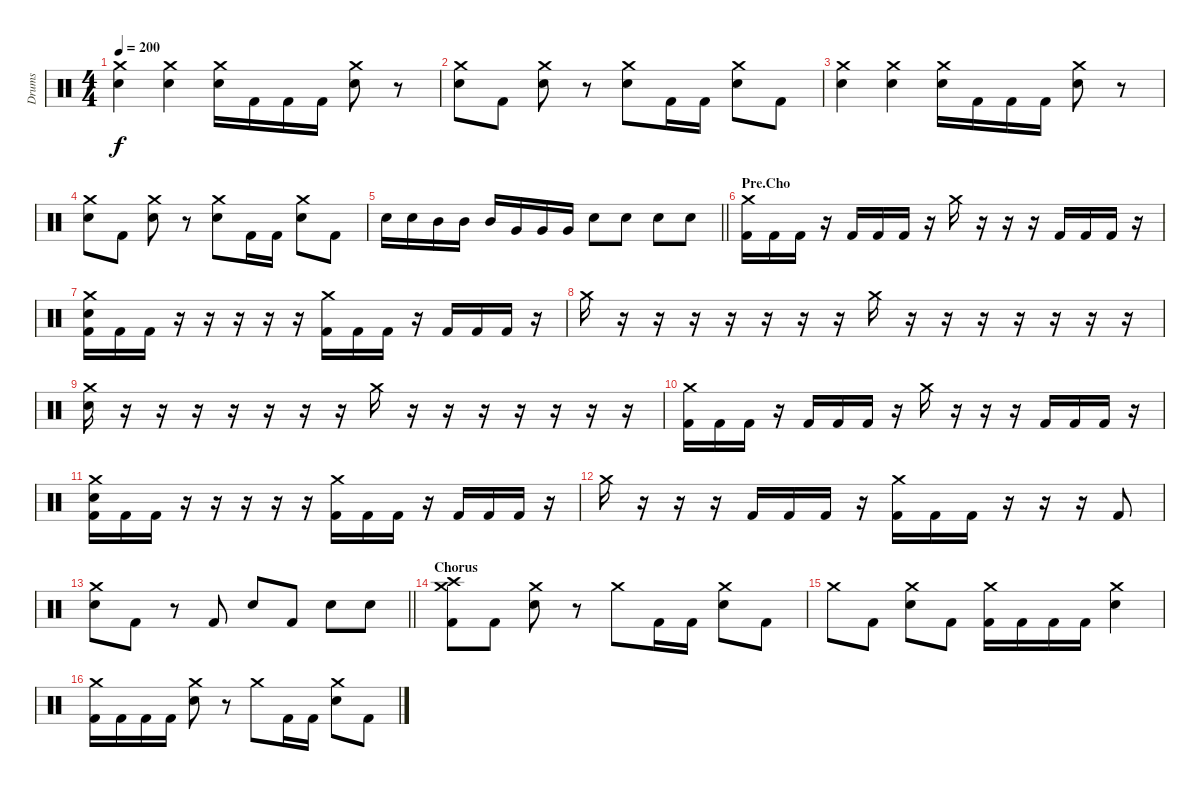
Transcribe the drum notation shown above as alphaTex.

\track ("Drums" "Drums") {instrument percussion}
\staff {score}
\articulation defaults
\ts (4 4)
\tempo 200
\clef neutral
\ks c
("Crash medium (hit)" "Electric Snare (hit)").4{dy f} ("Crash medium (hit)" "Electric Snare (hit)").4 ("Crash medium (hit)" "Electric Snare (hit)").16 "Kick (hit) 2".16 "Kick (hit) 2".16 "Kick (hit) 2".16 ("Crash medium (hit)" "Electric Snare (hit)").8 r.8 |
("Crash medium (hit)" "Electric Snare (hit)").8 "Kick (hit) 2".8 ("Crash medium (hit)" "Electric Snare (hit)").8 r.8 ("Crash medium (hit)" "Electric Snare (hit)").8 "Kick (hit) 2".16 "Kick (hit) 2".16 ("Crash medium (hit)" "Electric Snare (hit)").8 "Kick (hit) 2".8 |
("Crash medium (hit)" "Electric Snare (hit)").4 ("Crash medium (hit)" "Electric Snare (hit)").4 ("Crash medium (hit)" "Electric Snare (hit)").16 "Kick (hit) 2".16 "Kick (hit) 2".16 "Kick (hit) 2".16 ("Crash medium (hit)" "Electric Snare (hit)").8 r.8 |
("Crash medium (hit)" "Electric Snare (hit)").8 "Kick (hit) 2".8 ("Crash medium (hit)" "Electric Snare (hit)").8 r.8 ("Crash medium (hit)" "Electric Snare (hit)").8 "Kick (hit) 2".16 "Kick (hit) 2".16 ("Crash medium (hit)" "Electric Snare (hit)").8 "Kick (hit) 2".8 |
\barLineRight lightlight "Electric Snare (hit)".16 "Electric Snare (hit)".16 "Mid Tom (hit)".16 "Mid Tom (hit)".16 "Mid Tom (hit)".16 "Very Low Tom (hit)".16 "Very Low Tom (hit)".16 "Very Low Tom (hit)".16 "Electric Snare (hit)".8 "Electric Snare (hit)".8 "Electric Snare (hit)".8 "Electric Snare (hit)".8
|
\section ("" "Pre.Cho")
("Crash medium (hit)" "Kick (hit) 2").16 "Kick (hit) 2".16 "Kick (hit) 2".16 r.16 "Kick (hit) 2".16 "Kick (hit) 2".16 "Kick (hit) 2".16 r.16 "Crash medium (hit)".16 r.16 r.16 r.16 "Kick (hit) 2".16 "Kick (hit) 2".16 "Kick (hit) 2".16 r.16 |
("Crash medium (hit)" "Electric Snare (hit)" "Kick (hit) 2").16 "Kick (hit) 2".16 "Kick (hit) 2".16 r.16 r.16 r.16 r.16 r.16 ("Crash medium (hit)" "Kick (hit) 2").16 "Kick (hit) 2".16 "Kick (hit) 2".16 r.16 "Kick (hit) 2".16 "Kick (hit) 2".16 "Kick (hit) 2".16 r.16 |
"Crash medium (hit)".16 r.16 r.16 r.16 r.16 r.16 r.16 r.16 "Crash medium (hit)".16 r.16 r.16 r.16 r.16 r.16 r.16 r.16 |
("Crash medium (hit)" "Electric Snare (hit)").16 r.16 r.16 r.16 r.16 r.16 r.16 r.16 "Crash medium (hit)".16 r.16 r.16 r.16 r.16 r.16 r.16 r.16 |
("Crash medium (hit)" "Kick (hit) 2").16 "Kick (hit) 2".16 "Kick (hit) 2".16 r.16 "Kick (hit) 2".16 "Kick (hit) 2".16 "Kick (hit) 2".16 r.16 "Crash medium (hit)".16 r.16 r.16 r.16 "Kick (hit) 2".16 "Kick (hit) 2".16 "Kick (hit) 2".16 r.16 |
("Crash medium (hit)" "Electric Snare (hit)" "Kick (hit) 2").16 "Kick (hit) 2".16 "Kick (hit) 2".16 r.16 r.16 r.16 r.16 r.16 ("Crash medium (hit)" "Kick (hit) 2").16 "Kick (hit) 2".16 "Kick (hit) 2".16 r.16 "Kick (hit) 2".16 "Kick (hit) 2".16 "Kick (hit) 2".16 r.16 |
"Crash medium (hit)".16 r.16 r.16 r.16 "Kick (hit) 2".16 "Kick (hit) 2".16 "Kick (hit) 2".16 r.16 ("Crash medium (hit)" "Kick (hit) 2").16 "Kick (hit) 2".16 "Kick (hit) 2".16 r.16 r.16 r.16 "Kick (hit) 2".8 |
\barLineRight lightlight
("Crash medium (hit)" "Electric Snare (hit)").8 "Kick (hit) 2".8 r.8 "Kick (hit) 2".8 "Electric Snare (hit)".8 "Kick (hit) 2".8 "Electric Snare (hit)".8 "Electric Snare (hit)".8 |
\section ("" "Chorus")
("Crash medium (hit)" "Crash high (hit)" "Kick (hit) 2").8 "Kick (hit) 2".8 ("Crash medium (hit)" "Electric Snare (hit)").8 r.8 "Crash medium (hit)".8 "Kick (hit) 2".16 "Kick (hit) 2".16 ("Crash medium (hit)" "Electric Snare (hit)").8 "Kick (hit) 2".8 |
"Crash medium (hit)".8 "Kick (hit) 2".8 ("Crash medium (hit)" "Electric Snare (hit)").8 "Kick (hit) 2".8 ("Crash medium (hit)" "Kick (hit) 2").16 "Kick (hit) 2".16 "Kick (hit) 2".16 "Kick (hit) 2".16 ("Crash medium (hit)" "Electric Snare (hit)").4 |
("Crash medium (hit)" "Kick (hit) 2").16 "Kick (hit) 2".16 "Kick (hit) 2".16 "Kick (hit) 2".16 ("Crash medium (hit)" "Electric Snare (hit)").8 r.8 "Crash medium (hit)".8 "Kick (hit) 2".16 "Kick (hit) 2".16 ("Crash medium (hit)" "Electric Snare (hit)").8 "Kick (hit) 2".8
